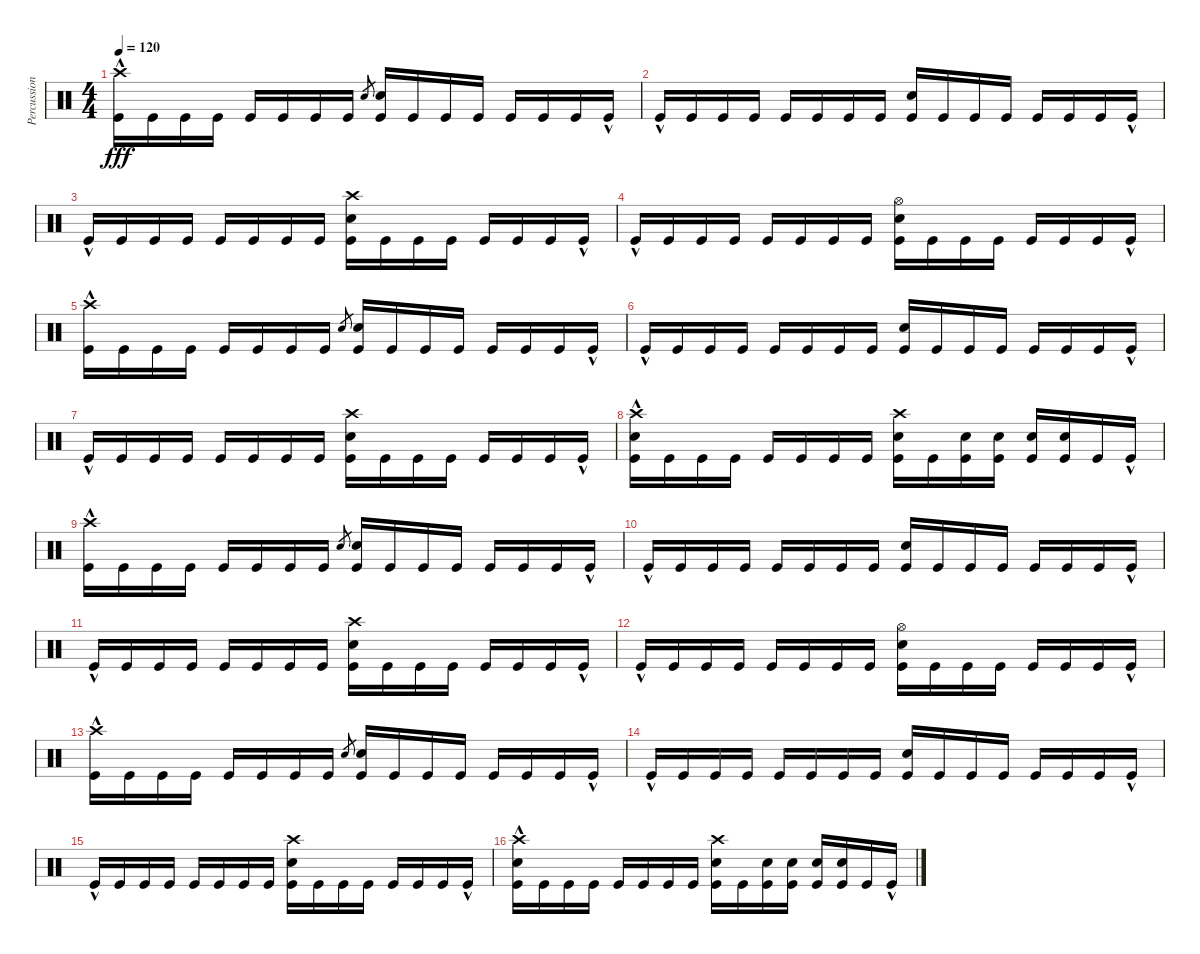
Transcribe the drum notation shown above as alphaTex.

\track ("Percussion" "Percussion") {instrument percussion}
\staff {score}
\articulation defaults
\ts (4 4)
\tempo 120
\clef neutral
\ks c
("Crash high (hit)"{hac} "Kick (hit)").16{dy fff} "Kick (hit)".16 "Kick (hit)".16 "Kick (hit)".16 "Kick (hit)".16 "Kick (hit)".16 "Kick (hit)".16 "Kick (hit)".16 "Snare (hit) 2".8{gr} ("Snare (hit) 2" "Kick (hit)").16 "Kick (hit)".16 "Kick (hit)".16 "Kick (hit)".16 "Kick (hit)".16 "Kick (hit)".16 "Kick (hit)".16 "Kick (hit)"{hac}.16 |
"Kick (hit)"{hac}.16 "Kick (hit)".16 "Kick (hit)".16 "Kick (hit)".16 "Kick (hit)".16 "Kick (hit)".16 "Kick (hit)".16 "Kick (hit)".16 ("Snare (hit) 2" "Kick (hit)").16 "Kick (hit)".16 "Kick (hit)".16 "Kick (hit)".16 "Kick (hit)".16 "Kick (hit)".16 "Kick (hit)".16 "Kick (hit)"{hac}.16 |
"Kick (hit)"{hac}.16 "Kick (hit)".16 "Kick (hit)".16 "Kick (hit)".16 "Kick (hit)".16 "Kick (hit)".16 "Kick (hit)".16 "Kick (hit)".16 ("Crash high (hit)" "Snare (hit) 2" "Kick (hit)").16 "Kick (hit)".16 "Kick (hit)".16 "Kick (hit)".16 "Kick (hit)".16 "Kick (hit)".16 "Kick (hit)".16 "Kick (hit)"{hac}.16 |
"Kick (hit)"{hac}.16 "Kick (hit)".16 "Kick (hit)".16 "Kick (hit)".16 "Kick (hit)".16 "Kick (hit)".16 "Kick (hit)".16 "Kick (hit)".16 ("Hi-Hat (open)" "Snare (hit) 2" "Kick (hit)").16 "Kick (hit)".16 "Kick (hit)".16 "Kick (hit)".16 "Kick (hit)".16 "Kick (hit)".16 "Kick (hit)".16 "Kick (hit)"{hac}.16 |
("Crash high (hit)"{hac} "Kick (hit)").16 "Kick (hit)".16 "Kick (hit)".16 "Kick (hit)".16 "Kick (hit)".16 "Kick (hit)".16 "Kick (hit)".16 "Kick (hit)".16 "Snare (hit) 2".8{gr} ("Snare (hit) 2" "Kick (hit)").16 "Kick (hit)".16 "Kick (hit)".16 "Kick (hit)".16 "Kick (hit)".16 "Kick (hit)".16 "Kick (hit)".16 "Kick (hit)"{hac}.16 |
"Kick (hit)"{hac}.16 "Kick (hit)".16 "Kick (hit)".16 "Kick (hit)".16 "Kick (hit)".16 "Kick (hit)".16 "Kick (hit)".16 "Kick (hit)".16 ("Snare (hit) 2" "Kick (hit)").16 "Kick (hit)".16 "Kick (hit)".16 "Kick (hit)".16 "Kick (hit)".16 "Kick (hit)".16 "Kick (hit)".16 "Kick (hit)"{hac}.16 |
"Kick (hit)"{hac}.16 "Kick (hit)".16 "Kick (hit)".16 "Kick (hit)".16 "Kick (hit)".16 "Kick (hit)".16 "Kick (hit)".16 "Kick (hit)".16 ("Crash high (hit)" "Snare (hit) 2" "Kick (hit)").16 "Kick (hit)".16 "Kick (hit)".16 "Kick (hit)".16 "Kick (hit)".16 "Kick (hit)".16 "Kick (hit)".16 "Kick (hit)"{hac}.16 |
("Crash high (hit)" "Snare (hit) 2" "Kick (hit)"{hac}).16 "Kick (hit)".16 "Kick (hit)".16 "Kick (hit)".16 "Kick (hit)".16 "Kick (hit)".16 "Kick (hit)".16 "Kick (hit)".16 ("Crash high (hit)" "Snare (hit) 2" "Kick (hit)").16 "Kick (hit)".16 ("Snare (hit) 2" "Kick (hit)").16 ("Snare (hit) 2" "Kick (hit)").16 ("Snare (hit) 2" "Kick (hit)").16 ("Snare (hit) 2" "Kick (hit)").16 "Kick (hit)".16 "Kick (hit)"{hac}.16 |
("Crash high (hit)"{hac} "Kick (hit)").16 "Kick (hit)".16 "Kick (hit)".16 "Kick (hit)".16 "Kick (hit)".16 "Kick (hit)".16 "Kick (hit)".16 "Kick (hit)".16 "Snare (hit) 2".8{gr} ("Snare (hit) 2" "Kick (hit)").16 "Kick (hit)".16 "Kick (hit)".16 "Kick (hit)".16 "Kick (hit)".16 "Kick (hit)".16 "Kick (hit)".16 "Kick (hit)"{hac}.16 |
"Kick (hit)"{hac}.16 "Kick (hit)".16 "Kick (hit)".16 "Kick (hit)".16 "Kick (hit)".16 "Kick (hit)".16 "Kick (hit)".16 "Kick (hit)".16 ("Snare (hit) 2" "Kick (hit)").16 "Kick (hit)".16 "Kick (hit)".16 "Kick (hit)".16 "Kick (hit)".16 "Kick (hit)".16 "Kick (hit)".16 "Kick (hit)"{hac}.16 |
"Kick (hit)"{hac}.16 "Kick (hit)".16 "Kick (hit)".16 "Kick (hit)".16 "Kick (hit)".16 "Kick (hit)".16 "Kick (hit)".16 "Kick (hit)".16 ("Crash high (hit)" "Snare (hit) 2" "Kick (hit)").16 "Kick (hit)".16 "Kick (hit)".16 "Kick (hit)".16 "Kick (hit)".16 "Kick (hit)".16 "Kick (hit)".16 "Kick (hit)"{hac}.16 |
"Kick (hit)"{hac}.16 "Kick (hit)".16 "Kick (hit)".16 "Kick (hit)".16 "Kick (hit)".16 "Kick (hit)".16 "Kick (hit)".16 "Kick (hit)".16 ("Hi-Hat (open)" "Snare (hit) 2" "Kick (hit)").16 "Kick (hit)".16 "Kick (hit)".16 "Kick (hit)".16 "Kick (hit)".16 "Kick (hit)".16 "Kick (hit)".16 "Kick (hit)"{hac}.16 |
("Crash high (hit)"{hac} "Kick (hit)").16 "Kick (hit)".16 "Kick (hit)".16 "Kick (hit)".16 "Kick (hit)".16 "Kick (hit)".16 "Kick (hit)".16 "Kick (hit)".16 "Snare (hit) 2".8{gr} ("Snare (hit) 2" "Kick (hit)").16 "Kick (hit)".16 "Kick (hit)".16 "Kick (hit)".16 "Kick (hit)".16 "Kick (hit)".16 "Kick (hit)".16 "Kick (hit)"{hac}.16 |
"Kick (hit)"{hac}.16 "Kick (hit)".16 "Kick (hit)".16 "Kick (hit)".16 "Kick (hit)".16 "Kick (hit)".16 "Kick (hit)".16 "Kick (hit)".16 ("Snare (hit) 2" "Kick (hit)").16 "Kick (hit)".16 "Kick (hit)".16 "Kick (hit)".16 "Kick (hit)".16 "Kick (hit)".16 "Kick (hit)".16 "Kick (hit)"{hac}.16 |
"Kick (hit)"{hac}.16 "Kick (hit)".16 "Kick (hit)".16 "Kick (hit)".16 "Kick (hit)".16 "Kick (hit)".16 "Kick (hit)".16 "Kick (hit)".16 ("Crash high (hit)" "Snare (hit) 2" "Kick (hit)").16 "Kick (hit)".16 "Kick (hit)".16 "Kick (hit)".16 "Kick (hit)".16 "Kick (hit)".16 "Kick (hit)".16 "Kick (hit)"{hac}.16 |
("Crash high (hit)" "Snare (hit) 2" "Kick (hit)"{hac}).16 "Kick (hit)".16 "Kick (hit)".16 "Kick (hit)".16 "Kick (hit)".16 "Kick (hit)".16 "Kick (hit)".16 "Kick (hit)".16 ("Crash high (hit)" "Snare (hit) 2" "Kick (hit)").16 "Kick (hit)".16 ("Snare (hit) 2" "Kick (hit)").16 ("Snare (hit) 2" "Kick (hit)").16 ("Snare (hit) 2" "Kick (hit)").16 ("Snare (hit) 2" "Kick (hit)").16 "Kick (hit)".16 "Kick (hit)"{hac}.16
